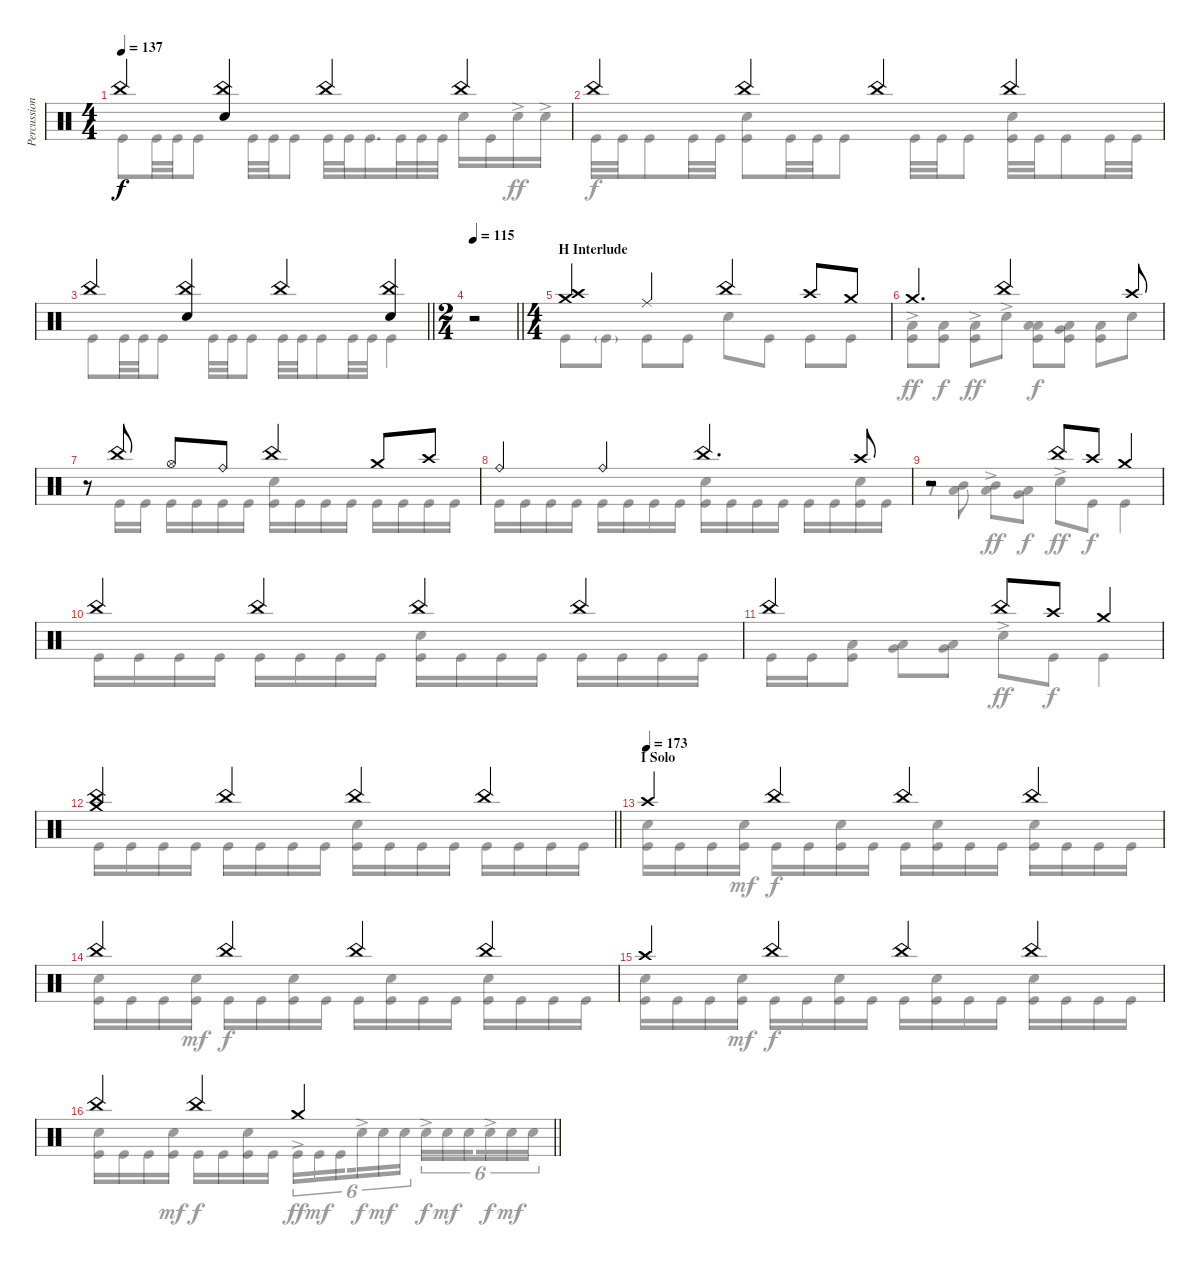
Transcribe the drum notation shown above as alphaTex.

\track ("Percussions" "Percussion") {instrument percussion}
\staff {score}
\articulation defaults
\voice
\ts (4 4)
\tempo 137
\clef neutral
\ks c "China (hit)".4{dy f}
("China (hit)" "Snare (hit) 2").4 "China (hit)".4 "China (hit)".4 |
"China (hit)".4 "China (hit)".4 "China (hit)".4 "China (hit)".4 |
\barLineRight lightlight "China (hit)".4
("China (hit)" "Snare (hit) 2").4 "China (hit)".4 ("China (hit)" "Snare (hit) 2").4 |
\ts (2 4)
\tempo 115
\barLineRight lightlight
r.2 |
\ts (4 4)
\section ("" "H Interlude")
("Crash high (hit)" "Crash medium (hit)").4 "Ride (middle)".4 "China (hit)".4 "Crash high (hit)".8 "Crash medium (hit)".8 |
"Crash medium (hit)".4{d} "China (hit)".2 "Crash high (hit)".8 |
r.8 "China (hit)".8 "Hi-Hat (open)".8 "Ride (bell)".8 "China (hit)".4 "Crash medium (hit)".8 "Crash high (hit)".8 |
"Ride (bell)".4 "Ride (bell)".4 "China (hit)".4{d} "Crash high (hit)".8 |
r.2 "China (hit)".8 "Crash high (hit)".8 "Crash medium (hit)".4 |
"China (hit)".4 "China (hit)".4 "China (hit)".4 "China (hit)".4 |
"China (hit)".2 "China (hit)".8 "Crash high (hit)".8 "Crash medium (hit)".4 |
\barLineRight lightlight
("China (hit)" "Crash medium (hit)").4 "China (hit)".4 "China (hit)".4 "China (hit)".4 |
\section ("" "I Solo")
\tempo (173)
"Crash high (hit)".4 "China (hit)".4 "China (hit)".4 "China (hit)".4 |
"China (hit)".4 "China (hit)".4 "China (hit)".4 "China (hit)".4 |
"Crash high (hit)".4 "China (hit)".4 "China (hit)".4 "China (hit)".4 |
\barLineRight lightlight "China (hit)".4 "China (hit)".4 "Crash medium (hit)".2
\voice
\clef neutral
\ottava regular
\simile none
\ks c "Kick (hit)".8{dy f} "Kick (hit)".32 "Kick (hit)".32 "Kick (hit)".8 "Kick (hit)".32 "Kick (hit)".32 "Kick (hit)".8 "Kick (hit)".32 "Kick (hit)".32 "Kick (hit)".16{d} "Kick (hit)".32 "Kick (hit)".32 "Kick (hit)".32 "Snare (hit) 2".16 "Kick (hit)".16 "Snare (hit) 2"{ac}.16{dy ff} "Snare (hit) 2"{ac}.16
|
"Kick (hit)".32{dy f} "Kick (hit)".32 "Kick (hit)".8 "Kick (hit)".32 "Kick (hit)".32 ("Snare (hit) 2" "Kick (hit)").8 "Kick (hit)".32 "Kick (hit)".32 "Kick (hit)".8 "Kick (hit)".32 "Kick (hit)".32 "Kick (hit)".8 ("Snare (hit) 2" "Kick (hit)").32 "Kick (hit)".32 "Kick (hit)".8 "Kick (hit)".32 "Kick (hit)".32 |
\barLineRight lightlight "Kick (hit)".8 "Kick (hit)".32 "Kick (hit)".32 "Kick (hit)".8 "Kick (hit)".32 "Kick (hit)".32 "Kick (hit)".8 "Kick (hit)".32 "Kick (hit)".32 "Kick (hit)".8 "Kick (hit)".32 "Kick (hit)".32 "Kick (hit)".4
|
\barLineRight lightlight
|
"Kick (hit)".8 "Kick (hit)"{g}.8 "Kick (hit)".8 "Kick (hit)".8 "Snare (hit) 2".8 "Kick (hit)".8 "Kick (hit)".8 "Kick (hit)".8 |
("Low Tom (hit)"{ac} "Kick (hit)").8{dy ff} ("Low Tom (hit)" "Kick (hit)").8{dy f} ("Low Tom (hit)"{ac} "Kick (hit)").8{dy ff} "Snare (hit) 2"{ac}.8 ("Low Tom (hit)" "Low Floor Tom (hit)" "Kick (hit)").8{dy f} ("Very Low Tom (hit)" "Low Floor Tom (hit)" "Kick (hit)").8 ("Low Floor Tom (hit)" "Kick (hit)").8 "Snare (hit) 2".8 |
r.8 "Kick (hit)".16 "Kick (hit)".16 "Kick (hit)".16 "Kick (hit)".16 "Kick (hit)".16 "Kick (hit)".16 ("Snare (hit) 2" "Kick (hit)").16 "Kick (hit)".16 "Kick (hit)".16 "Kick (hit)".16 "Kick (hit)".16 "Kick (hit)".16 "Kick (hit)".16 "Kick (hit)".16 |
"Kick (hit)".16 "Kick (hit)".16 "Kick (hit)".16 "Kick (hit)".16 "Kick (hit)".16 "Kick (hit)".16 "Kick (hit)".16 "Kick (hit)".16 ("Snare (hit) 2" "Kick (hit)").16 "Kick (hit)".16 "Kick (hit)".16 "Kick (hit)".16 "Kick (hit)".16 "Kick (hit)".16 ("Snare (hit) 2" "Kick (hit)").16 "Kick (hit)".16 |
r.8 ("Mid Tom (hit)" "Low Tom (hit)").8 ("Mid Tom (hit)"{ac} "Low Tom (hit)"{ac}).8{dy ff} ("Low Tom (hit)" "Very Low Tom (hit)").8{dy f} "Snare (hit) 2"{ac}.8{dy ff} "Kick (hit)".8{dy f} "Kick (hit)".4 |
"Kick (hit)".16 "Kick (hit)".16 "Kick (hit)".16 "Kick (hit)".16 "Kick (hit)".16 "Kick (hit)".16 "Kick (hit)".16 "Kick (hit)".16 ("Snare (hit) 2" "Kick (hit)").16 "Kick (hit)".16 "Kick (hit)".16 "Kick (hit)".16 "Kick (hit)".16 "Kick (hit)".16 "Kick (hit)".16 "Kick (hit)".16 |
"Kick (hit)".16 "Kick (hit)".16 ("Low Floor Tom (hit)" "Kick (hit)").8 ("Very Low Tom (hit)" "Low Tom (hit)").8 ("Very Low Tom (hit)" "Low Tom (hit)").8 "Snare (hit) 2"{ac}.8{dy ff} "Kick (hit)".8{dy f} "Kick (hit)".4 |
\barLineRight lightlight "Kick (hit)".16 "Kick (hit)".16 "Kick (hit)".16 "Kick (hit)".16 "Kick (hit)".16 "Kick (hit)".16 "Kick (hit)".16 "Kick (hit)".16
("Snare (hit) 2" "Kick (hit)").16 "Kick (hit)".16 "Kick (hit)".16 "Kick (hit)".16 "Kick (hit)".16 "Kick (hit)".16 "Kick (hit)".16 "Kick (hit)".16 |
("Snare (hit) 2" "Kick (hit)").16 "Kick (hit)".16 "Kick (hit)".16 ("Snare (hit) 2" "Kick (hit)").16{dy mf} "Kick (hit)".16{dy f} "Kick (hit)".16 ("Snare (hit) 2" "Kick (hit)").16 "Kick (hit)".16 "Kick (hit)".16 ("Snare (hit) 2" "Kick (hit)").16 "Kick (hit)".16 "Kick (hit)".16 ("Snare (hit) 2" "Kick (hit)").16 "Kick (hit)".16 "Kick (hit)".16 "Kick (hit)".16 |
("Snare (hit) 2" "Kick (hit)").16 "Kick (hit)".16 "Kick (hit)".16 ("Snare (hit) 2" "Kick (hit)").16{dy mf} "Kick (hit)".16{dy f} "Kick (hit)".16 ("Snare (hit) 2" "Kick (hit)").16 "Kick (hit)".16 "Kick (hit)".16 ("Snare (hit) 2" "Kick (hit)").16 "Kick (hit)".16 "Kick (hit)".16 ("Snare (hit) 2" "Kick (hit)").16 "Kick (hit)".16 "Kick (hit)".16 "Kick (hit)".16 |
("Snare (hit) 2" "Kick (hit)").16 "Kick (hit)".16 "Kick (hit)".16 ("Snare (hit) 2" "Kick (hit)").16{dy mf} "Kick (hit)".16{dy f} "Kick (hit)".16 ("Snare (hit) 2" "Kick (hit)").16 "Kick (hit)".16 "Kick (hit)".16 ("Snare (hit) 2" "Kick (hit)").16 "Kick (hit)".16 "Kick (hit)".16 ("Snare (hit) 2" "Kick (hit)").16 "Kick (hit)".16 "Kick (hit)".16 "Kick (hit)".16 |
\barLineRight lightlight
("Snare (hit) 2" "Kick (hit)").16 "Kick (hit)".16 "Kick (hit)".16 ("Snare (hit) 2" "Kick (hit)").16{dy mf} "Kick (hit)".16{dy f} "Kick (hit)".16 ("Snare (hit) 2" "Kick (hit)").16 "Kick (hit)".16 "Kick (hit)"{ac}.16{tu (6 4) dy ff} "Kick (hit)".16{tu (6 4) dy mf} "Kick (hit)".16{tu (6 4) beam splitsecondary} "Snare (hit) 2"{ac}.16{tu (6 4) dy f} "Snare (hit) 2".16{tu (6 4) dy mf} "Snare (hit) 2".16{tu (6 4)} "Snare (hit) 2"{ac}.16{tu (6 4) dy f} "Snare (hit) 2".16{tu (6 4) dy mf} "Snare (hit) 2".16{tu (6 4) beam splitsecondary} "Snare (hit) 2"{ac}.16{tu (6 4) dy f} "Snare (hit) 2".16{tu (6 4) dy mf} "Snare (hit) 2".16{tu (6 4)}
